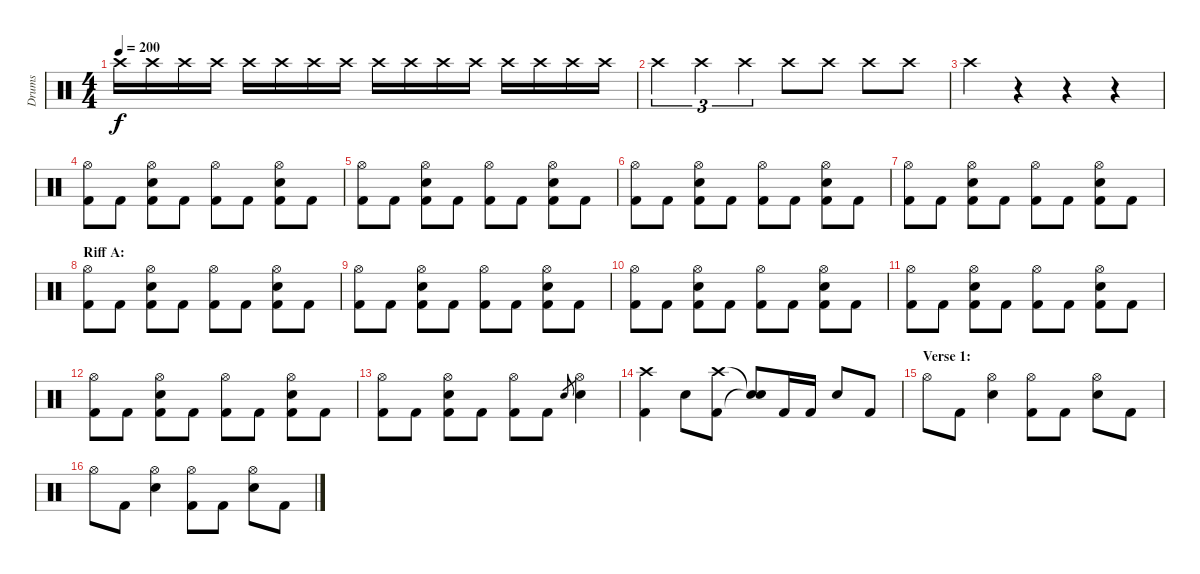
\track ("Drums" "Drums") {instrument percussion}
\staff {score}
\articulation defaults
\ts (4 4)
\tempo 200
\clef neutral
\ks c "Crash high (hit)".16{dy f} "Crash high (hit)".16 "Crash high (hit)".16 "Crash high (hit)".16 "Crash high (hit)".16 "Crash high (hit)".16 "Crash high (hit)".16 "Crash high (hit)".16 "Crash high (hit)".16 "Crash high (hit)".16 "Crash high (hit)".16 "Crash high (hit)".16 "Crash high (hit)".16 "Crash high (hit)".16 "Crash high (hit)".16 "Crash high (hit)".16
|
"Crash high (hit)".4{tu (3 2)} "Crash high (hit)".4{tu (3 2)} "Crash high (hit)".4{tu (3 2)} "Crash high (hit)".8 "Crash high (hit)".8 "Crash high (hit)".8 "Crash high (hit)".8 |
"Crash high (hit)".4 r.4 r.4 r.4 |
("Hi-Hat (open)" "Kick (hit) 2").8 "Kick (hit) 2".8 ("Hi-Hat (open)" "Electric Snare (hit)" "Kick (hit) 2").8 "Kick (hit) 2".8 ("Hi-Hat (open)" "Kick (hit) 2").8 "Kick (hit) 2".8 ("Hi-Hat (open)" "Electric Snare (hit)" "Kick (hit) 2").8 "Kick (hit) 2".8 |
("Hi-Hat (open)" "Kick (hit) 2").8 "Kick (hit) 2".8 ("Hi-Hat (open)" "Electric Snare (hit)" "Kick (hit) 2").8 "Kick (hit) 2".8 ("Hi-Hat (open)" "Kick (hit) 2").8 "Kick (hit) 2".8 ("Hi-Hat (open)" "Electric Snare (hit)" "Kick (hit) 2").8 "Kick (hit) 2".8 |
("Hi-Hat (open)" "Kick (hit) 2").8 "Kick (hit) 2".8 ("Hi-Hat (open)" "Electric Snare (hit)" "Kick (hit) 2").8 "Kick (hit) 2".8 ("Hi-Hat (open)" "Kick (hit) 2").8 "Kick (hit) 2".8 ("Hi-Hat (open)" "Electric Snare (hit)" "Kick (hit) 2").8 "Kick (hit) 2".8 |
("Hi-Hat (open)" "Kick (hit) 2").8 "Kick (hit) 2".8 ("Hi-Hat (open)" "Electric Snare (hit)" "Kick (hit) 2").8 "Kick (hit) 2".8 ("Hi-Hat (open)" "Kick (hit) 2").8 "Kick (hit) 2".8 ("Hi-Hat (open)" "Electric Snare (hit)" "Kick (hit) 2").8 "Kick (hit) 2".8 |
\section ("" "Riff A:")
("Hi-Hat (open)" "Kick (hit) 2").8 "Kick (hit) 2".8 ("Hi-Hat (open)" "Electric Snare (hit)" "Kick (hit) 2").8 "Kick (hit) 2".8 ("Hi-Hat (open)" "Kick (hit) 2").8 "Kick (hit) 2".8 ("Hi-Hat (open)" "Electric Snare (hit)" "Kick (hit) 2").8 "Kick (hit) 2".8 |
("Hi-Hat (open)" "Kick (hit) 2").8 "Kick (hit) 2".8 ("Hi-Hat (open)" "Electric Snare (hit)" "Kick (hit) 2").8 "Kick (hit) 2".8 ("Hi-Hat (open)" "Kick (hit) 2").8 "Kick (hit) 2".8 ("Hi-Hat (open)" "Electric Snare (hit)" "Kick (hit) 2").8 "Kick (hit) 2".8 |
("Hi-Hat (open)" "Kick (hit) 2").8 "Kick (hit) 2".8 ("Hi-Hat (open)" "Electric Snare (hit)" "Kick (hit) 2").8 "Kick (hit) 2".8 ("Hi-Hat (open)" "Kick (hit) 2").8 "Kick (hit) 2".8 ("Hi-Hat (open)" "Electric Snare (hit)" "Kick (hit) 2").8 "Kick (hit) 2".8 |
("Hi-Hat (open)" "Kick (hit) 2").8 "Kick (hit) 2".8 ("Hi-Hat (open)" "Electric Snare (hit)" "Kick (hit) 2").8 "Kick (hit) 2".8 ("Hi-Hat (open)" "Kick (hit) 2").8 "Kick (hit) 2".8 ("Hi-Hat (open)" "Electric Snare (hit)" "Kick (hit) 2").8 "Kick (hit) 2".8 |
("Hi-Hat (open)" "Kick (hit) 2").8 "Kick (hit) 2".8 ("Hi-Hat (open)" "Electric Snare (hit)" "Kick (hit) 2").8 "Kick (hit) 2".8 ("Hi-Hat (open)" "Kick (hit) 2").8 "Kick (hit) 2".8 ("Hi-Hat (open)" "Electric Snare (hit)" "Kick (hit) 2").8 "Kick (hit) 2".8 |
("Hi-Hat (open)" "Kick (hit) 2").8 "Kick (hit) 2".8 ("Hi-Hat (open)" "Electric Snare (hit)" "Kick (hit) 2").8 "Kick (hit) 2".8 ("Hi-Hat (open)" "Kick (hit) 2").8 "Kick (hit) 2".8 "Electric Snare (hit)".8{gr} ("Hi-Hat (open)" "Electric Snare (hit)").4 |
("Crash high (hit)" "Kick (hit) 2").4 "Electric Snare (hit)".8 ("Crash high (hit)" "Kick (hit) 2").8 ("Snare (hit)"{t} "Snare (hit)"{t}).8 "Kick (hit) 2".16 "Kick (hit) 2".16 "Electric Snare (hit)".8 "Kick (hit) 2".8 |
\section ("" "Verse 1:")
"Hi-Hat (open)".8 "Kick (hit) 2".8 ("Hi-Hat (open)" "Electric Snare (hit)").4 ("Hi-Hat (open)" "Kick (hit) 2").8 "Kick (hit) 2".8 ("Hi-Hat (open)" "Electric Snare (hit)").8 "Kick (hit) 2".8 |
"Hi-Hat (open)".8 "Kick (hit) 2".8 ("Hi-Hat (open)" "Electric Snare (hit)").4 ("Hi-Hat (open)" "Kick (hit) 2").8 "Kick (hit) 2".8 ("Hi-Hat (open)" "Electric Snare (hit)").8 "Kick (hit) 2".8
